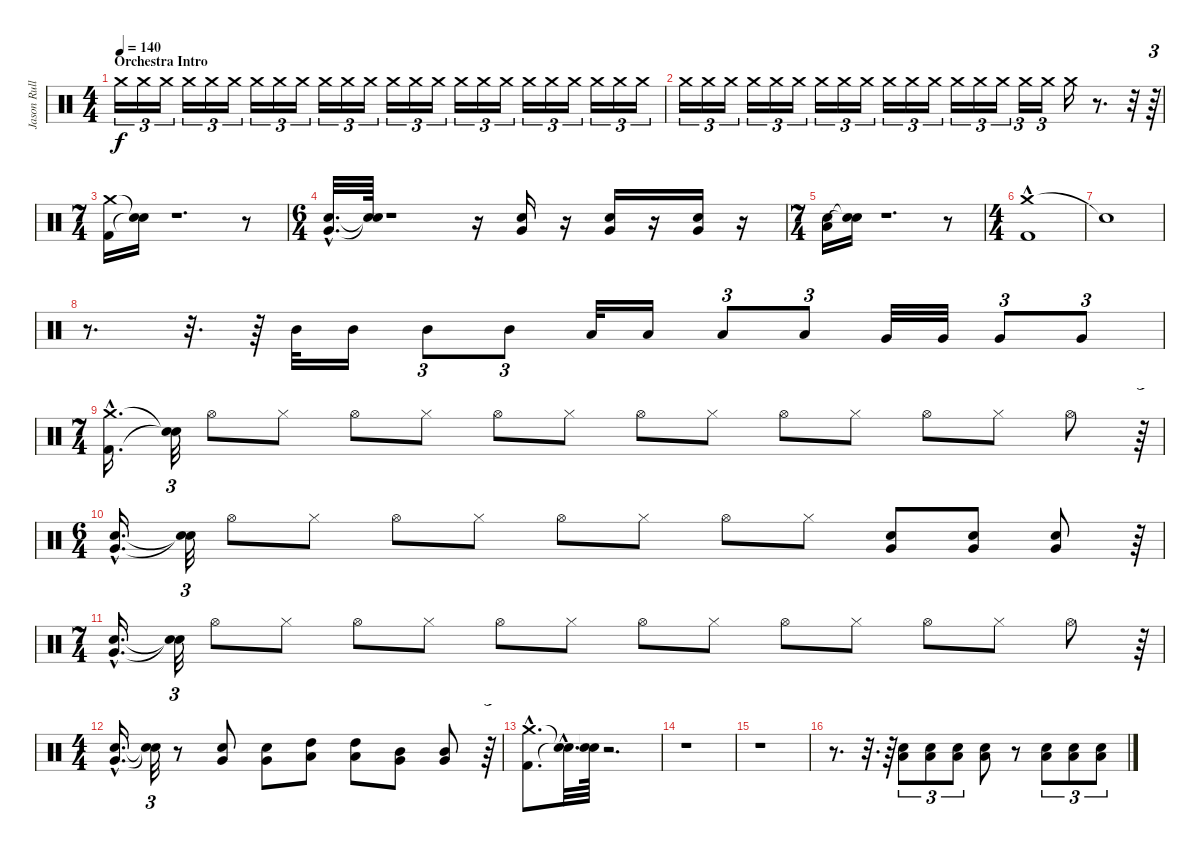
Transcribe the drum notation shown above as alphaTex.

\track ("Jason Rullo" "Jason Rull") {instrument percussion}
\staff {score}
\articulation defaults
\ts (4 4)
\section ("" "Orchestra Intro")
\tempo 140
\clef neutral
\ks c "Crash medium (hit)".16{tu (3 2) dy f} "Crash medium (hit)".16{tu (3 2) volume 0} "Crash medium (hit)".16{tu (3 2) volume 0} "Crash medium (hit)".16{tu (3 2) volume 1} "Crash medium (hit)".16{tu (3 2) volume 1} "Crash medium (hit)".16{tu (3 2) volume 1} "Crash medium (hit)".16{tu (3 2) volume 2} "Crash medium (hit)".16{tu (3 2) volume 2} "Crash medium (hit)".16{tu (3 2) volume 2} "Crash medium (hit)".16{tu (3 2) volume 2} "Crash medium (hit)".16{tu (3 2) volume 2} "Crash medium (hit)".16{tu (3 2) volume 3} "Crash medium (hit)".16{tu (3 2) volume 3} "Crash medium (hit)".16{tu (3 2) volume 3} "Crash medium (hit)".16{tu (3 2) volume 4} "Crash medium (hit)".16{tu (3 2) volume 4} "Crash medium (hit)".16{tu (3 2) volume 4} "Crash medium (hit)".16{tu (3 2) volume 4} "Crash medium (hit)".16{tu (3 2) volume 5} "Crash medium (hit)".16{tu (3 2) volume 5} "Crash medium (hit)".16{tu (3 2) volume 5} "Crash medium (hit)".16{tu (3 2) volume 5} "Crash medium (hit)".16{tu (3 2) volume 6} "Crash medium (hit)".16{tu (3 2) volume 6}
|
"Crash medium (hit)".16{tu (3 2) volume 6} "Crash medium (hit)".16{tu (3 2) volume 6} "Crash medium (hit)".16{tu (3 2) volume 7} "Crash medium (hit)".16{tu (3 2) volume 7} "Crash medium (hit)".16{tu (3 2) volume 7} "Crash medium (hit)".16{tu (3 2) volume 8} "Crash medium (hit)".16{tu (3 2) volume 8} "Crash medium (hit)".16{tu (3 2) volume 8} "Crash medium (hit)".16{tu (3 2) volume 8} "Crash medium (hit)".16{tu (3 2) volume 8} "Crash medium (hit)".16{tu (3 2) volume 9} "Crash medium (hit)".16{tu (3 2) volume 9} "Crash medium (hit)".16{tu (3 2) volume 9} "Crash medium (hit)".16{tu (3 2) volume 10} "Crash medium (hit)".16{tu (3 2) volume 10} "Crash medium (hit)".16{tu (3 2) volume 10} "Crash medium (hit)".16{tu (3 2) volume 10} "Crash medium (hit)".16{volume 11} r.8{d} r.32 r.64{tu (3 2) volume 15 balance 8} |
\ts (7 4)
("Crash medium (hit)" "Kick (hit) 2").16{volume 15 balance 8} ("Snare (hit)"{t} "Snare (hit)"{t}).16 r.1{d} r.8 |
\ts (6 4)
("Very Low Tom (hit)"{hac} "Electric Snare (hit)"{hac}).32{d} ("Snare (hit)"{t} "Snare (hit)"{t}).64 r.1 r.16 ("Very Low Tom (hit)" "Electric Snare (hit)").16 r.16 ("Very Low Tom (hit)" "Electric Snare (hit)").16 r.16 ("Very Low Tom (hit)" "Electric Snare (hit)").16 r.16 |
\ts (7 4)
("Low Tom (hit)" "Electric Snare (hit)").16 ("Snare (hit)"{t} "Snare (hit)"{t}).16 r.1{d} r.8 |
\ts (4 4)
("Crash medium (hit)" "Kick (hit) 2"{hac}).1 |
"Snare (hit)"{t}.1 |
r.8{d} r.32{d} r.64 "Mid Tom (hit)".32 "Mid Tom (hit)".16 "Mid Tom (hit)".8{tu (3 2)} "Mid Tom (hit)".8{tu (3 2)} "Low Tom (hit)".32 "Low Tom (hit)".16 "Low Tom (hit)".8{tu (3 2)} "Low Tom (hit)".8{tu (3 2)} "Very Low Tom (hit)".32 "Very Low Tom (hit)".32 "Very Low Tom (hit)".8{tu (3 2)} "Very Low Tom (hit)".8{tu (3 2)} |
\ts (7 4)
("Crash medium (hit)"{hac} "Kick (hit) 2"{hac}).16{d} ("Snare (hit)"{t} "Snare (hit)"{t}).32{tu (3 2)} "Hi-Hat (open)".8 "Hi-Hat (closed)".8 "Hi-Hat (open)".8 "Hi-Hat (closed)".8 "Hi-Hat (open)".8 "Hi-Hat (closed)".8 "Hi-Hat (open)".8 "Hi-Hat (closed)".8 "Hi-Hat (open)".8 "Hi-Hat (closed)".8 "Hi-Hat (open)".8 "Hi-Hat (closed)".8 "Hi-Hat (open)".8 r.64{tu (3 2)} |
\ts (6 4)
("Very Low Tom (hit)"{hac} "Electric Snare (hit)"{hac}).16{d} ("Snare (hit)"{t} "Snare (hit)"{t}).32{tu (3 2)} "Hi-Hat (open)".8 "Hi-Hat (closed)".8 "Hi-Hat (open)".8 "Hi-Hat (closed)".8 "Hi-Hat (open)".8 "Hi-Hat (closed)".8 "Hi-Hat (open)".8 "Hi-Hat (closed)".8 ("Very Low Tom (hit)" "Electric Snare (hit)").8 ("Very Low Tom (hit)" "Electric Snare (hit)").8 ("Very Low Tom (hit)" "Electric Snare (hit)").8 r.64{tu (3 2)} |
\ts (7 4)
("Electric Snare (hit)"{hac} "Very Low Tom (hit)"{hac}).16{d} ("Snare (hit)"{t} "Snare (hit)"{t}).32{tu (3 2)} "Hi-Hat (open)".8 "Hi-Hat (closed)".8 "Hi-Hat (open)".8 "Hi-Hat (closed)".8 "Hi-Hat (open)".8 "Hi-Hat (closed)".8 "Hi-Hat (open)".8 "Hi-Hat (closed)".8 "Hi-Hat (open)".8 "Hi-Hat (closed)".8 "Hi-Hat (open)".8 "Hi-Hat (closed)".8 "Hi-Hat (open)".8 r.64{tu (3 2)} |
\ts (4 4)
("Very Low Tom (hit)"{hac} "Electric Snare (hit)"{hac}).16{d} ("Snare (hit)"{t} "Snare (hit)"{t}).32{tu (3 2)} r.8 ("Very Low Tom (hit)" "Electric Snare (hit)").8 ("Very Low Tom (hit)" "Electric Snare (hit)").8 ("High Tom (hit)" "Low Tom (hit)").8 ("High Tom (hit)" "Low Tom (hit)").8 ("Mid Tom (hit)" "Very Low Tom (hit)").8 ("Mid Tom (hit)" "Very Low Tom (hit)").8 r.64{tu (3 2)} |
("Crash medium (hit)"{hac} "Kick (hit) 2"{hac}).8{d} ("Snare (hit)"{hac t} "Snare (hit)"{hac t}).32{d} ("Snare (hit)"{t} "Snare (hit)"{t}).64 r.2{d} |
r.1 |
r.1 |
r.8{d} r.32{d} r.64 ("Low Tom (hit)" "Electric Snare (hit)").8{tu (3 2)} ("Low Tom (hit)" "Electric Snare (hit)").8{tu (3 2)} ("Low Tom (hit)" "Electric Snare (hit)").8{tu (3 2)} ("Low Tom (hit)" "Electric Snare (hit)").8 r.8 ("Low Tom (hit)" "Electric Snare (hit)").8{tu (3 2)} ("Low Tom (hit)" "Electric Snare (hit)").8{tu (3 2)} ("Low Tom (hit)" "Electric Snare (hit)").8{tu (3 2)}
